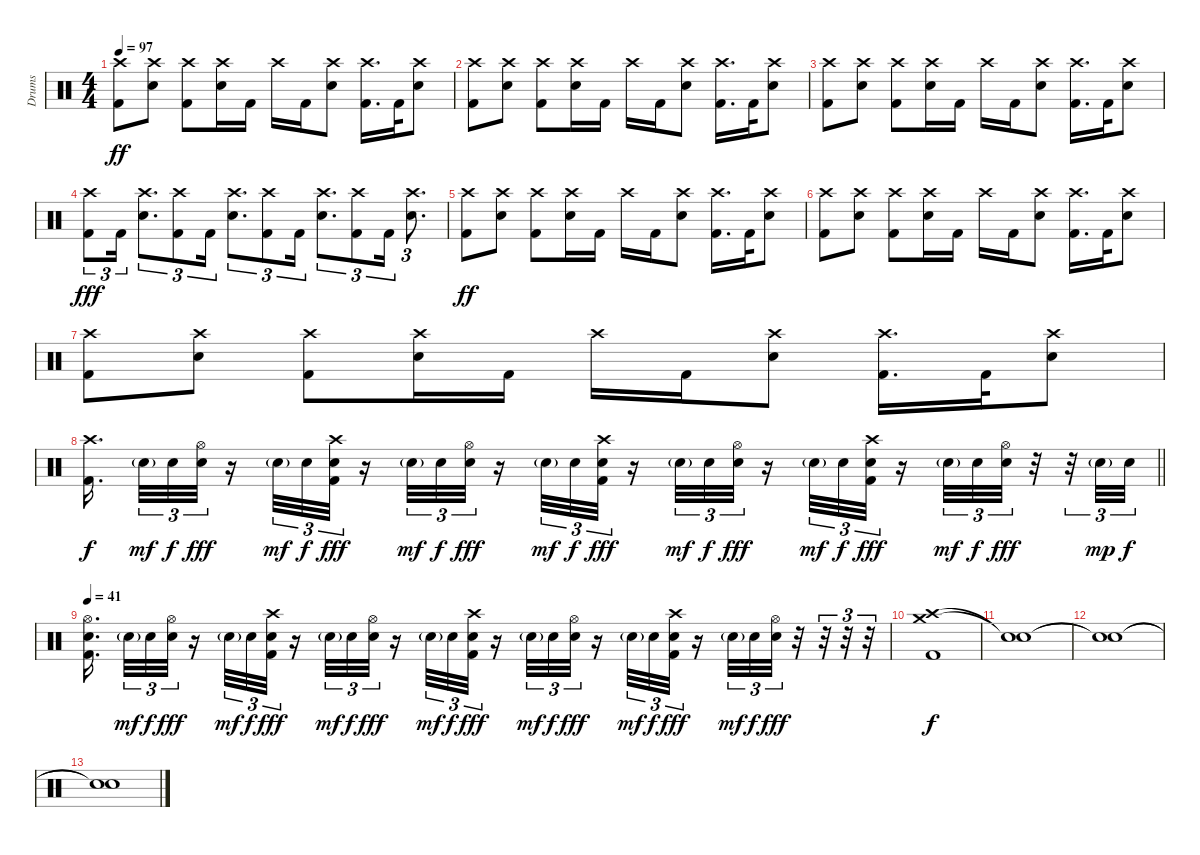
\track ("Drums" "Drums") {instrument percussion}
\staff {score}
\articulation defaults
\ts (4 4)
\tempo 97
\clef neutral
\ks c
("Crash high (hit)" "Kick (hit) 2").8{dy ff} ("Crash high (hit)" "Electric Snare (hit)").8 ("Crash high (hit)" "Kick (hit) 2").8 ("Crash high (hit)" "Electric Snare (hit)").16 "Kick (hit) 2".16 "Crash high (hit)".16 "Kick (hit) 2".16 ("Crash high (hit)" "Electric Snare (hit)").8 ("Crash high (hit)" "Kick (hit) 2").16{d} "Kick (hit) 2".32 ("Crash high (hit)" "Electric Snare (hit)").8 |
("Crash high (hit)" "Kick (hit) 2").8 ("Crash high (hit)" "Electric Snare (hit)").8 ("Crash high (hit)" "Kick (hit) 2").8 ("Crash high (hit)" "Electric Snare (hit)").16 "Kick (hit) 2".16 "Crash high (hit)".16 "Kick (hit) 2".16 ("Crash high (hit)" "Electric Snare (hit)").8 ("Crash high (hit)" "Kick (hit) 2").16{d} "Kick (hit) 2".32 ("Crash high (hit)" "Electric Snare (hit)").8 |
("Crash high (hit)" "Kick (hit) 2").8 ("Crash high (hit)" "Electric Snare (hit)").8 ("Crash high (hit)" "Kick (hit) 2").8 ("Crash high (hit)" "Electric Snare (hit)").16 "Kick (hit) 2".16 "Crash high (hit)".16 "Kick (hit) 2".16 ("Crash high (hit)" "Electric Snare (hit)").8 ("Crash high (hit)" "Kick (hit) 2").16{d} "Kick (hit) 2".32 ("Crash high (hit)" "Electric Snare (hit)").8 |
("Crash high (hit)" "Kick (hit) 2").8{tu (3 2) dy fff} "Kick (hit) 2".16{tu (3 2)} ("Crash high (hit)" "Electric Snare (hit)").8{d tu (3 2)} ("Crash high (hit)" "Kick (hit) 2").8{tu (3 2)} "Kick (hit) 2".16{tu (3 2)} ("Crash high (hit)" "Electric Snare (hit)").8{d tu (3 2)} ("Crash high (hit)" "Kick (hit) 2").8{tu (3 2)} "Kick (hit) 2".16{tu (3 2)} ("Crash high (hit)" "Electric Snare (hit)").8{d tu (3 2)} ("Crash high (hit)" "Kick (hit) 2").8{tu (3 2)} "Kick (hit) 2".16{tu (3 2)} ("Crash high (hit)" "Electric Snare (hit)").8{d tu (3 2)} |
("Crash high (hit)" "Kick (hit) 2").8{dy ff} ("Crash high (hit)" "Electric Snare (hit)").8 ("Crash high (hit)" "Kick (hit) 2").8 ("Crash high (hit)" "Electric Snare (hit)").16 "Kick (hit) 2".16 "Crash high (hit)".16 "Kick (hit) 2".16 ("Crash high (hit)" "Electric Snare (hit)").8 ("Crash high (hit)" "Kick (hit) 2").16{d} "Kick (hit) 2".32 ("Crash high (hit)" "Electric Snare (hit)").8 |
("Crash high (hit)" "Kick (hit) 2").8 ("Crash high (hit)" "Electric Snare (hit)").8 ("Crash high (hit)" "Kick (hit) 2").8 ("Crash high (hit)" "Electric Snare (hit)").16 "Kick (hit) 2".16 "Crash high (hit)".16 "Kick (hit) 2".16 ("Crash high (hit)" "Electric Snare (hit)").8 ("Crash high (hit)" "Kick (hit) 2").16{d} "Kick (hit) 2".32 ("Crash high (hit)" "Electric Snare (hit)").8 |
("Crash high (hit)" "Kick (hit) 2").8 ("Crash high (hit)" "Electric Snare (hit)").8 ("Crash high (hit)" "Kick (hit) 2").8 ("Crash high (hit)" "Electric Snare (hit)").16 "Kick (hit) 2".16 "Crash high (hit)".16 "Kick (hit) 2".16 ("Crash high (hit)" "Electric Snare (hit)").8 ("Crash high (hit)" "Kick (hit) 2").16{d} "Kick (hit) 2".32 ("Crash high (hit)" "Electric Snare (hit)").8 |
\barLineRight lightlight
("Crash high (hit)" "Kick (hit) 2").16{d dy f beam splitsecondary} "Electric Snare (hit)"{g}.32{tu (3 2) dy mf} "Electric Snare (hit)".32{tu (3 2) dy f} ("Hi-Hat (open)" "Electric Snare (hit)").32{tu (3 2) dy fff} r.16 "Electric Snare (hit)"{g}.32{tu (3 2) dy mf} "Electric Snare (hit)".32{tu (3 2) dy f} ("Crash high (hit)" "Electric Snare (hit)" "Kick (hit) 2").32{tu (3 2) dy fff} r.16 "Electric Snare (hit)"{g}.32{tu (3 2) dy mf} "Electric Snare (hit)".32{tu (3 2) dy f} ("Hi-Hat (open)" "Electric Snare (hit)").32{tu (3 2) dy fff} r.16 "Electric Snare (hit)"{g}.32{tu (3 2) dy mf} "Electric Snare (hit)".32{tu (3 2) dy f} ("Crash high (hit)" "Electric Snare (hit)" "Kick (hit) 2").32{tu (3 2) dy fff} r.16 "Electric Snare (hit)"{g}.32{tu (3 2) dy mf} "Electric Snare (hit)".32{tu (3 2) dy f} ("Hi-Hat (open)" "Electric Snare (hit)").32{tu (3 2) dy fff} r.16 "Electric Snare (hit)"{g}.32{tu (3 2) dy mf} "Electric Snare (hit)".32{tu (3 2) dy f} ("Crash high (hit)" "Electric Snare (hit)" "Kick (hit) 2").32{tu (3 2) dy fff} r.16 "Electric Snare (hit)"{g}.32{tu (3 2) dy mf} "Electric Snare (hit)".32{tu (3 2) dy f} ("Hi-Hat (open)" "Electric Snare (hit)").32{tu (3 2) dy fff} r.32 r.32{tu (3 2)} "Electric Snare (hit)"{g}.32{tu (3 2) dy mp} "Electric Snare (hit)".32{tu (3 2) dy f} |
\tempo 41
("Hi-Hat (open)" "Electric Snare (hit)" "Kick (hit) 2").16{d beam splitsecondary} "Electric Snare (hit)"{g}.32{tu (3 2) dy mf} "Electric Snare (hit)".32{tu (3 2) dy f} ("Hi-Hat (open)" "Electric Snare (hit)").32{tu (3 2) dy fff} r.16 "Electric Snare (hit)"{g}.32{tu (3 2) dy mf} "Electric Snare (hit)".32{tu (3 2) dy f} ("Crash high (hit)" "Electric Snare (hit)" "Kick (hit) 2").32{tu (3 2) dy fff} r.16 "Electric Snare (hit)"{g}.32{tu (3 2) dy mf} "Electric Snare (hit)".32{tu (3 2) dy f} ("Hi-Hat (open)" "Electric Snare (hit)").32{tu (3 2) dy fff} r.16 "Electric Snare (hit)"{g}.32{tu (3 2) dy mf} "Electric Snare (hit)".32{tu (3 2) dy f} ("Crash high (hit)" "Electric Snare (hit)" "Kick (hit) 2").32{tu (3 2) dy fff} r.16 "Electric Snare (hit)"{g}.32{tu (3 2) dy mf} "Electric Snare (hit)".32{tu (3 2) dy f} ("Hi-Hat (open)" "Electric Snare (hit)").32{tu (3 2) dy fff} r.16 "Electric Snare (hit)"{g}.32{tu (3 2) dy mf} "Electric Snare (hit)".32{tu (3 2) dy f} ("Crash high (hit)" "Electric Snare (hit)" "Kick (hit) 2").32{tu (3 2) dy fff} r.16 "Electric Snare (hit)"{g}.32{tu (3 2) dy mf} "Electric Snare (hit)".32{tu (3 2) dy f} ("Hi-Hat (open)" "Electric Snare (hit)").32{tu (3 2) dy fff} r.32 r.32{tu (3 2)} r.32{tu (3 2)} r.32{tu (3 2)} |
("Crash high (hit)" "Crash medium (hit)" "Kick (hit) 2").1{dy f} |
("Snare (hit)"{t} "Snare (hit)"{t}).1 |
("Snare (hit)"{t} "Snare (hit)"{t}).1 |
("Snare (hit)"{t} "Snare (hit)"{t}).1
